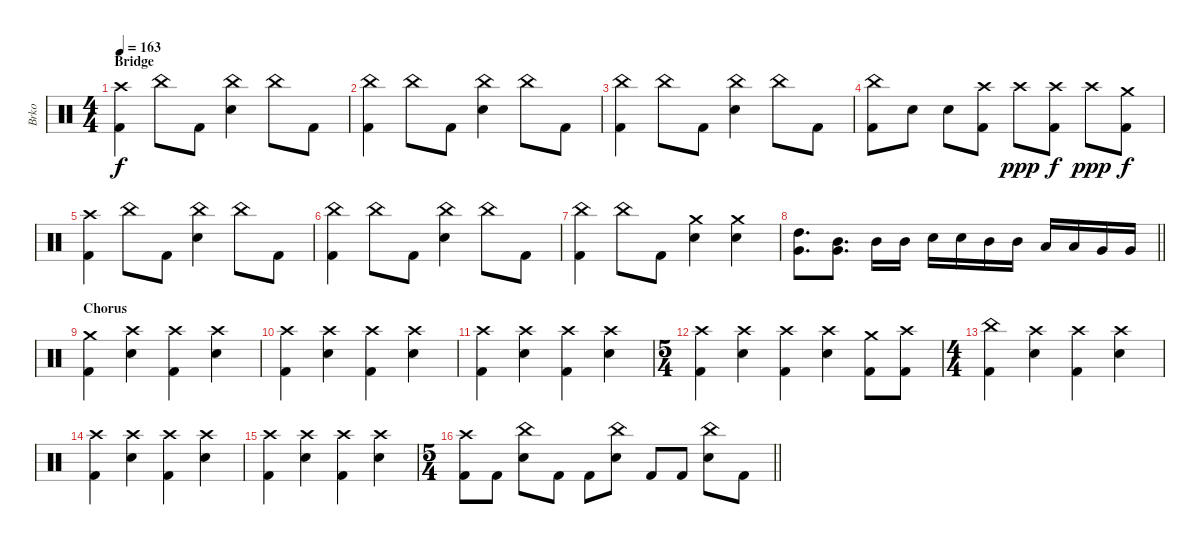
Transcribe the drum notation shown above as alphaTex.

\track ("Brko" "Brko") {instrument percussion}
\staff {score}
\articulation defaults
\ts (4 4)
\section ("" "Bridge")
\tempo 163
\clef neutral
\ks c
("Crash high (hit)" "Kick (hit) 2").4{dy f} "China (hit)".8 "Kick (hit) 2".8 ("China (hit)" "Electric Snare (hit)").4 "China (hit)".8 "Kick (hit) 2".8 |
("China (hit)" "Kick (hit) 2").4 "China (hit)".8 "Kick (hit) 2".8 ("China (hit)" "Electric Snare (hit)").4 "China (hit)".8 "Kick (hit) 2".8 |
("China (hit)" "Kick (hit) 2").4 "China (hit)".8 "Kick (hit) 2".8 ("China (hit)" "Electric Snare (hit)").4 "China (hit)".8 "Kick (hit) 2".8 |
("China (hit)" "Kick (hit) 2").8 "Electric Snare (hit)".8 "Electric Snare (hit)".8 ("Crash high (hit)" "Kick (hit) 2").8 "Crash high (hit)".8{dy ppp} ("Crash high (hit)" "Kick (hit) 2").8{dy f} "Crash high (hit)".8{dy ppp} ("Crash medium (hit)" "Kick (hit) 2").8{dy f} |
("Crash high (hit)" "Kick (hit) 2").4 "China (hit)".8 "Kick (hit) 2".8 ("China (hit)" "Electric Snare (hit)").4 "China (hit)".8 "Kick (hit) 2".8 |
("China (hit)" "Kick (hit) 2").4 "China (hit)".8 "Kick (hit) 2".8 ("China (hit)" "Electric Snare (hit)").4 "China (hit)".8 "Kick (hit) 2".8 |
("China (hit)" "Kick (hit) 2").4 "China (hit)".8 "Kick (hit) 2".8 ("Crash medium (hit)" "Electric Snare (hit)").4 ("Crash medium (hit)" "Electric Snare (hit)").4 |
\barLineRight lightlight
("High Tom (hit)" "Very Low Tom (hit)").8{d} ("Mid Tom (hit)" "Very Low Tom (hit)").8{d} "Mid Tom (hit)".16 "Mid Tom (hit)".16 "Electric Snare (hit)".16 "Electric Snare (hit)".16 "Mid Tom (hit)".16 "Mid Tom (hit)".16 "Low Tom (hit)".16 "Low Tom (hit)".16 "Very Low Tom (hit)".16 "Very Low Tom (hit)".16 |
\section ("" "Chorus")
("Crash medium (hit)" "Kick (hit) 2").4 ("Crash high (hit)" "Electric Snare (hit)").4 ("Crash high (hit)" "Kick (hit) 2").4 ("Crash high (hit)" "Electric Snare (hit)").4 |
("Crash high (hit)" "Kick (hit) 2").4 ("Crash high (hit)" "Electric Snare (hit)").4 ("Crash high (hit)" "Kick (hit) 2").4 ("Crash high (hit)" "Electric Snare (hit)").4 |
("Crash high (hit)" "Kick (hit) 2").4 ("Crash high (hit)" "Electric Snare (hit)").4 ("Crash high (hit)" "Kick (hit) 2").4 ("Crash high (hit)" "Electric Snare (hit)").4 |
\ts (5 4)
("Crash high (hit)" "Kick (hit) 2").4 ("Crash high (hit)" "Electric Snare (hit)").4 ("Crash high (hit)" "Kick (hit) 2").4 ("Crash high (hit)" "Electric Snare (hit)").4 ("Crash medium (hit)" "Kick (hit) 2").8 ("Crash high (hit)" "Kick (hit) 2").8 |
\ts (4 4)
("China (hit)" "Kick (hit) 2").4 ("Crash high (hit)" "Electric Snare (hit)").4 ("Crash high (hit)" "Kick (hit) 2").4 ("Crash high (hit)" "Electric Snare (hit)").4 |
("Crash high (hit)" "Kick (hit) 2").4 ("Crash high (hit)" "Electric Snare (hit)").4 ("Crash high (hit)" "Kick (hit) 2").4 ("Crash high (hit)" "Electric Snare (hit)").4 |
("Crash high (hit)" "Kick (hit) 2").4 ("Crash high (hit)" "Electric Snare (hit)").4 ("Crash high (hit)" "Kick (hit) 2").4 ("Crash high (hit)" "Electric Snare (hit)").4 |
\ts (5 4)
\barLineRight lightlight
("Crash high (hit)" "Kick (hit) 2").8 "Kick (hit) 2".8 ("China (hit)" "Electric Snare (hit)").8 "Kick (hit) 2".8 "Kick (hit) 2".8 ("China (hit)" "Electric Snare (hit)").8 "Kick (hit) 2".8 "Kick (hit) 2".8 ("China (hit)" "Electric Snare (hit)").8 "Kick (hit) 2".8
